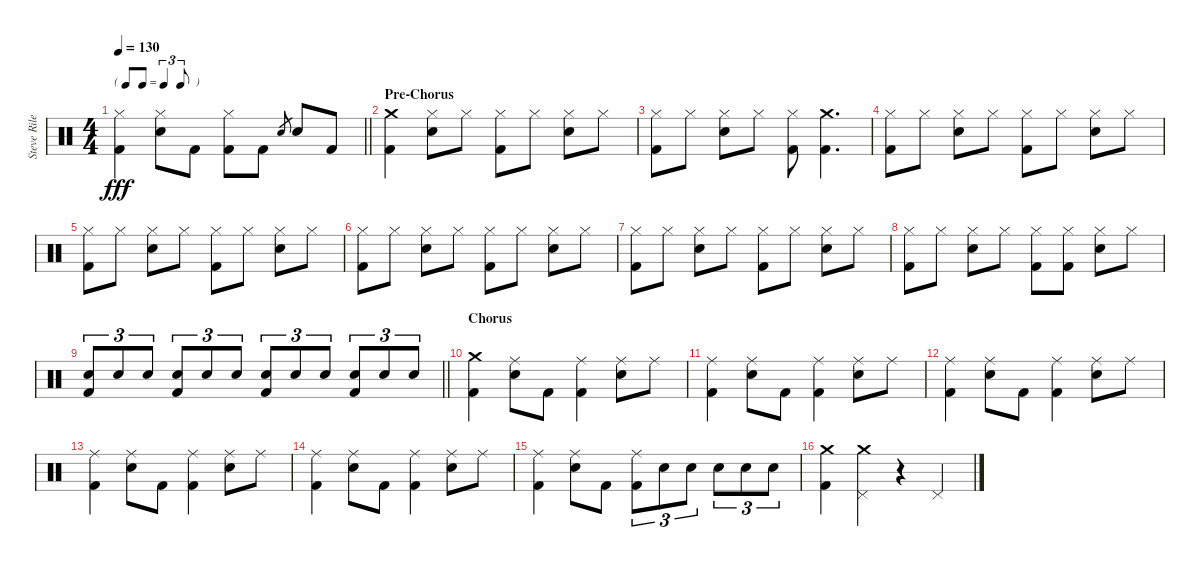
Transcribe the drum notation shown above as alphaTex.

\track ("Steve Riley - Drums" "Steve Rile") {instrument percussion}
\staff {score}
\articulation defaults
\ts (4 4)
\tf triplet8th
\tempo 130
\clef neutral
\barLineRight lightlight
\ks c
("Hi-Hat (closed)" "Kick (hit) 2").4{dy fff} ("Hi-Hat (closed)" "Electric Snare (hit)").8 "Kick (hit) 2".8 ("Hi-Hat (closed)" "Kick (hit) 2").8 "Kick (hit) 2".8 "Electric Snare (hit)".8{gr} "Electric Snare (hit)".8 "Kick (hit) 2".8 |
\section ("" "Pre-Chorus")
("Crash medium (hit)" "Kick (hit) 2").4 ("Hi-Hat (closed)" "Electric Snare (hit)").8 "Hi-Hat (closed)".8 ("Hi-Hat (closed)" "Kick (hit) 2").8 "Hi-Hat (closed)".8 ("Hi-Hat (closed)" "Electric Snare (hit)").8 "Hi-Hat (closed)".8 |
("Hi-Hat (closed)" "Kick (hit) 2").8 "Hi-Hat (closed)".8 ("Hi-Hat (closed)" "Electric Snare (hit)").8 "Hi-Hat (closed)".8 ("Hi-Hat (closed)" "Kick (hit) 2").8 ("Crash medium (hit)" "Kick (hit) 2").4{d} |
("Hi-Hat (closed)" "Kick (hit) 2").8 "Hi-Hat (closed)".8 ("Hi-Hat (closed)" "Electric Snare (hit)").8 "Hi-Hat (closed)".8 ("Hi-Hat (closed)" "Kick (hit) 2").8 "Hi-Hat (closed)".8 ("Hi-Hat (closed)" "Electric Snare (hit)").8 "Hi-Hat (closed)".8 |
("Hi-Hat (closed)" "Kick (hit) 2").8 "Hi-Hat (closed)".8 ("Hi-Hat (closed)" "Electric Snare (hit)").8 "Hi-Hat (closed)".8 ("Hi-Hat (closed)" "Kick (hit) 2").8 "Hi-Hat (closed)".8 ("Hi-Hat (closed)" "Electric Snare (hit)").8 "Hi-Hat (closed)".8 |
("Hi-Hat (closed)" "Kick (hit) 2").8 "Hi-Hat (closed)".8 ("Hi-Hat (closed)" "Electric Snare (hit)").8 "Hi-Hat (closed)".8 ("Hi-Hat (closed)" "Kick (hit) 2").8 "Hi-Hat (closed)".8 ("Hi-Hat (closed)" "Electric Snare (hit)").8 "Hi-Hat (closed)".8 |
("Hi-Hat (closed)" "Kick (hit) 2").8 "Hi-Hat (closed)".8 ("Hi-Hat (closed)" "Electric Snare (hit)").8 "Hi-Hat (closed)".8 ("Hi-Hat (closed)" "Kick (hit) 2").8 "Hi-Hat (closed)".8 ("Hi-Hat (closed)" "Electric Snare (hit)").8 "Hi-Hat (closed)".8 |
("Hi-Hat (closed)" "Kick (hit) 2").8 "Hi-Hat (closed)".8 ("Hi-Hat (closed)" "Electric Snare (hit)").8 "Hi-Hat (closed)".8 ("Hi-Hat (closed)" "Kick (hit) 2").8 ("Hi-Hat (closed)" "Kick (hit) 2").8 ("Hi-Hat (closed)" "Electric Snare (hit)").8 "Hi-Hat (closed)".8 |
\barLineRight lightlight
("Electric Snare (hit)" "Kick (hit) 2").8{tu (3 2)} "Electric Snare (hit)".8{tu (3 2)} "Electric Snare (hit)".8{tu (3 2)} ("Electric Snare (hit)" "Kick (hit) 2").8{tu (3 2)} "Electric Snare (hit)".8{tu (3 2)} "Electric Snare (hit)".8{tu (3 2)} ("Electric Snare (hit)" "Kick (hit) 2").8{tu (3 2)} "Electric Snare (hit)".8{tu (3 2)} "Electric Snare (hit)".8{tu (3 2)} ("Electric Snare (hit)" "Kick (hit) 2").8{tu (3 2)} "Electric Snare (hit)".8{tu (3 2)} "Electric Snare (hit)".8{tu (3 2)} |
\section ("" "Chorus")
("Crash medium (hit)" "Kick (hit) 2").4 ("Ride (middle)" "Electric Snare (hit)").8 "Kick (hit) 2".8 ("Ride (middle)" "Kick (hit) 2").4 ("Ride (middle)" "Electric Snare (hit)").8 "Ride (middle)".8 |
("Ride (middle)" "Kick (hit) 2").4 ("Ride (middle)" "Electric Snare (hit)").8 "Kick (hit) 2".8 ("Ride (middle)" "Kick (hit) 2").4 ("Ride (middle)" "Electric Snare (hit)").8 "Ride (middle)".8 |
("Ride (middle)" "Kick (hit) 2").4 ("Ride (middle)" "Electric Snare (hit)").8 "Kick (hit) 2".8 ("Ride (middle)" "Kick (hit) 2").4 ("Ride (middle)" "Electric Snare (hit)").8 "Ride (middle)".8 |
("Ride (middle)" "Kick (hit) 2").4 ("Ride (middle)" "Electric Snare (hit)").8 "Kick (hit) 2".8 ("Ride (middle)" "Kick (hit) 2").4 ("Ride (middle)" "Electric Snare (hit)").8 "Ride (middle)".8 |
("Ride (middle)" "Kick (hit) 2").4 ("Ride (middle)" "Electric Snare (hit)").8 "Kick (hit) 2".8 ("Ride (middle)" "Kick (hit) 2").4 ("Ride (middle)" "Electric Snare (hit)").8 "Ride (middle)".8 |
("Ride (middle)" "Kick (hit) 2").4 ("Ride (middle)" "Electric Snare (hit)").8 "Kick (hit) 2".8 ("Ride (middle)" "Kick (hit) 2").8{tu (3 2)} "Electric Snare (hit)".8{tu (3 2)} "Electric Snare (hit)".8{tu (3 2)} "Electric Snare (hit)".8{tu (3 2)} "Electric Snare (hit)".8{tu (3 2)} "Electric Snare (hit)".8{tu (3 2)} |
("Crash medium (hit)" "Kick (hit) 2").4 ("Crash medium (hit)" "Pedal Hi-Hat (hit)").4 r.4 "Pedal Hi-Hat (hit)".4
